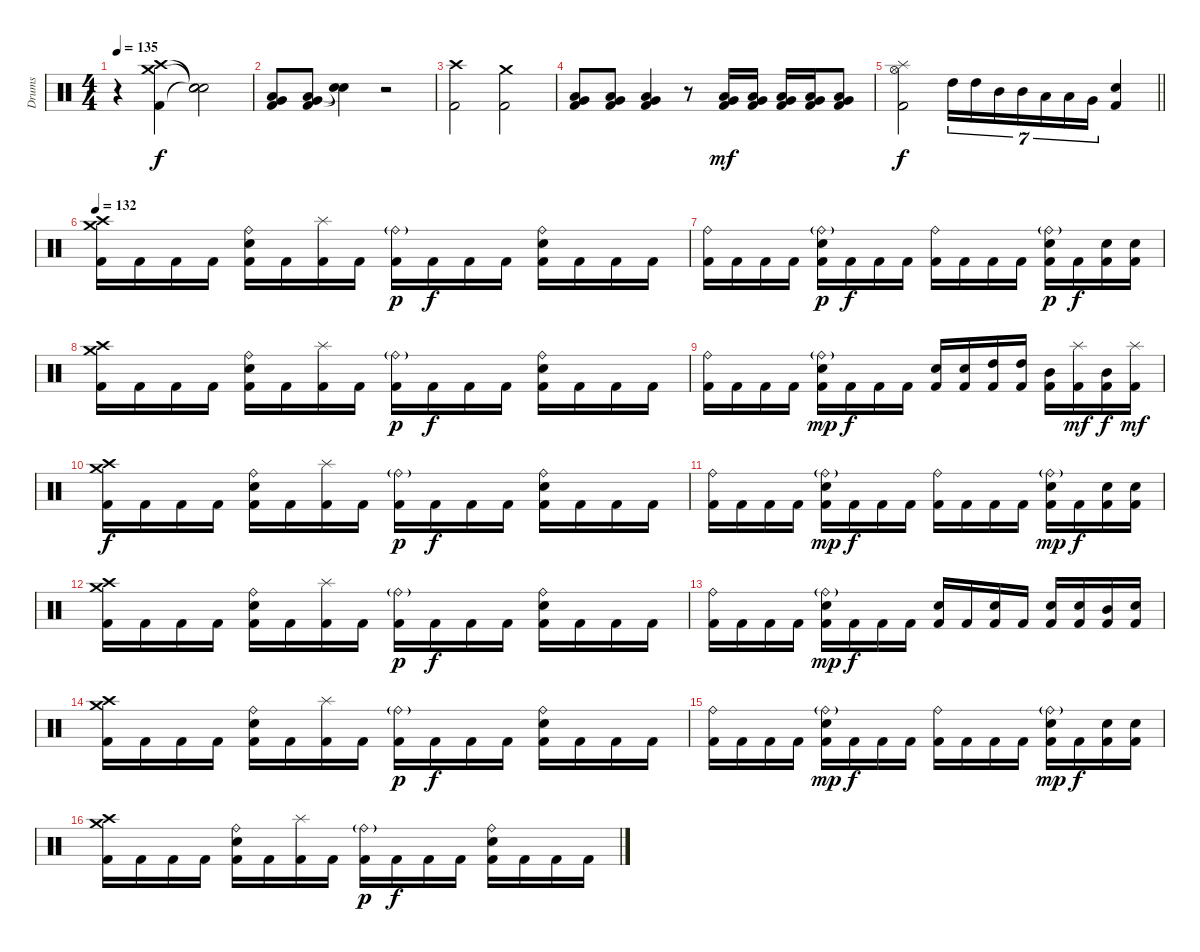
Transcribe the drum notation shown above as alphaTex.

\track ("Drums" "Drums") {instrument percussion}
\staff {score}
\articulation defaults
\ts (4 4)
\tempo 135
\clef neutral
\ks c
r.4{dy f} ("Crash high (hit)" "Crash medium (hit)" "Kick (hit) 2").4 ("Snare (hit)"{t} "Snare (hit)"{t} "Snare (hit)"{t}).2 |
("Low Tom (hit)" "Very Low Tom (hit)" "Kick (hit) 2").8 ("Low Tom (hit)" "Very Low Tom (hit)" "Kick (hit) 2").8 ("Snare (hit)"{t} "Snare (hit)"{t}).4 r.2 |
("Crash high (hit)" "Kick (hit) 2").2 ("Crash medium (hit)" "Kick (hit) 2").2 |
("Low Tom (hit)" "Very Low Tom (hit)" "Kick (hit) 2").8 ("Low Tom (hit)" "Very Low Tom (hit)" "Kick (hit) 2").8 ("Low Tom (hit)" "Very Low Tom (hit)" "Kick (hit) 2").4 r.8 ("Low Tom (hit)" "Very Low Tom (hit)" "Kick (hit) 2").16{dy mf} ("Low Tom (hit)" "Very Low Tom (hit)" "Kick (hit) 2").16 ("Low Tom (hit)" "Very Low Tom (hit)" "Kick (hit) 2").16 ("Low Tom (hit)" "Very Low Tom (hit)" "Kick (hit) 2").16 ("Low Tom (hit)" "Very Low Tom (hit)" "Kick (hit) 2").8 |
\barLineRight lightlight
("Splash (hit)" "Hi-Hat (open)" "Kick (hit) 2").2{dy f} "High Tom (hit)".16{tu (7 4)} "High Tom (hit)".16{tu (7 4)} "Mid Tom (hit)".16{tu (7 4)} "Mid Tom (hit)".16{tu (7 4)} "Low Tom (hit)".16{tu (7 4)} "Low Tom (hit)".16{tu (7 4)} "Very Low Tom (hit)".16{tu (7 4)} ("Electric Snare (hit)" "Kick (hit) 2").4 |
\tempo 132
("Crash high (hit)" "Crash medium (hit)" "Kick (hit) 2").16 "Kick (hit) 2".16 "Kick (hit) 2".16 "Kick (hit) 2".16 ("Ride (bell)" "Electric Snare (hit)" "Kick (hit) 2").16 "Kick (hit) 2".16 ("Splash (hit)" "Kick (hit) 2").16 "Kick (hit) 2".16 ("Ride (bell)"{g} "Kick (hit) 2").16{dy p} "Kick (hit) 2".16{dy f} "Kick (hit) 2".16 "Kick (hit) 2".16 ("Ride (bell)" "Electric Snare (hit)" "Kick (hit) 2").16 "Kick (hit) 2".16 "Kick (hit) 2".16 "Kick (hit) 2".16 |
("Ride (bell)" "Kick (hit) 2").16 "Kick (hit) 2".16 "Kick (hit) 2".16 "Kick (hit) 2".16 ("Ride (bell)"{g} "Electric Snare (hit)" "Kick (hit) 2").16{dy p} "Kick (hit) 2".16{dy f} "Kick (hit) 2".16 "Kick (hit) 2".16 ("Ride (bell)" "Kick (hit) 2").16 "Kick (hit) 2".16 "Kick (hit) 2".16 "Kick (hit) 2".16 ("Ride (bell)"{g} "Electric Snare (hit)" "Kick (hit) 2").16{dy p} "Kick (hit) 2".16{dy f} ("Electric Snare (hit)" "Kick (hit) 2").16 ("Electric Snare (hit)" "Kick (hit) 2").16 |
("Crash high (hit)" "Crash medium (hit)" "Kick (hit) 2").16 "Kick (hit) 2".16 "Kick (hit) 2".16 "Kick (hit) 2".16 ("Ride (bell)" "Electric Snare (hit)" "Kick (hit) 2").16 "Kick (hit) 2".16 ("Splash (hit)" "Kick (hit) 2").16 "Kick (hit) 2".16 ("Ride (bell)"{g} "Kick (hit) 2").16{dy p} "Kick (hit) 2".16{dy f} "Kick (hit) 2".16 "Kick (hit) 2".16 ("Ride (bell)" "Electric Snare (hit)" "Kick (hit) 2").16 "Kick (hit) 2".16 "Kick (hit) 2".16 "Kick (hit) 2".16 |
("Ride (bell)" "Kick (hit) 2").16 "Kick (hit) 2".16 "Kick (hit) 2".16 "Kick (hit) 2".16 ("Ride (bell)"{g} "Electric Snare (hit)" "Kick (hit) 2").16{dy mp} "Kick (hit) 2".16{dy f} "Kick (hit) 2".16 "Kick (hit) 2".16 ("Electric Snare (hit)" "Kick (hit) 2").16 ("Electric Snare (hit)" "Kick (hit) 2").16 ("High Tom (hit)" "Kick (hit) 2").16 ("High Tom (hit)" "Kick (hit) 2").16 ("Mid Tom (hit)" "Kick (hit) 2").16 ("Splash (hit)" "Kick (hit) 2").16{dy mf} ("Mid Tom (hit)" "Kick (hit) 2").16{dy f} ("Splash (hit)" "Kick (hit) 2").16{dy mf} |
("Crash high (hit)" "Crash medium (hit)" "Kick (hit) 2").16{dy f} "Kick (hit) 2".16 "Kick (hit) 2".16 "Kick (hit) 2".16 ("Ride (bell)" "Electric Snare (hit)" "Kick (hit) 2").16 "Kick (hit) 2".16 ("Splash (hit)" "Kick (hit) 2").16 "Kick (hit) 2".16 ("Ride (bell)"{g} "Kick (hit) 2").16{dy p} "Kick (hit) 2".16{dy f} "Kick (hit) 2".16 "Kick (hit) 2".16 ("Ride (bell)" "Electric Snare (hit)" "Kick (hit) 2").16 "Kick (hit) 2".16 "Kick (hit) 2".16 "Kick (hit) 2".16 |
("Ride (bell)" "Kick (hit) 2").16 "Kick (hit) 2".16 "Kick (hit) 2".16 "Kick (hit) 2".16 ("Ride (bell)"{g} "Electric Snare (hit)" "Kick (hit) 2").16{dy mp} "Kick (hit) 2".16{dy f} "Kick (hit) 2".16 "Kick (hit) 2".16 ("Ride (bell)" "Kick (hit) 2").16 "Kick (hit) 2".16 "Kick (hit) 2".16 "Kick (hit) 2".16 ("Ride (bell)"{g} "Electric Snare (hit)" "Kick (hit) 2").16{dy mp} "Kick (hit) 2".16{dy f} ("Electric Snare (hit)" "Kick (hit) 2").16 ("Electric Snare (hit)" "Kick (hit) 2").16 |
("Crash high (hit)" "Crash medium (hit)" "Kick (hit) 2").16 "Kick (hit) 2".16 "Kick (hit) 2".16 "Kick (hit) 2".16 ("Ride (bell)" "Electric Snare (hit)" "Kick (hit) 2").16 "Kick (hit) 2".16 ("Splash (hit)" "Kick (hit) 2").16 "Kick (hit) 2".16 ("Ride (bell)"{g} "Kick (hit) 2").16{dy p} "Kick (hit) 2".16{dy f} "Kick (hit) 2".16 "Kick (hit) 2".16 ("Ride (bell)" "Electric Snare (hit)" "Kick (hit) 2").16 "Kick (hit) 2".16 "Kick (hit) 2".16 "Kick (hit) 2".16 |
("Ride (bell)" "Kick (hit) 2").16 "Kick (hit) 2".16 "Kick (hit) 2".16 "Kick (hit) 2".16 ("Ride (bell)"{g} "Electric Snare (hit)" "Kick (hit) 2").16{dy mp} "Kick (hit) 2".16{dy f} "Kick (hit) 2".16 "Kick (hit) 2".16 ("Electric Snare (hit)" "Kick (hit) 2").16 "Kick (hit) 2".16 ("Electric Snare (hit)" "Kick (hit) 2").16 "Kick (hit) 2".16 ("Electric Snare (hit)" "Kick (hit) 2").16 ("Electric Snare (hit)" "Kick (hit) 2").16 ("Mid Tom (hit)" "Kick (hit) 2").16 ("Electric Snare (hit)" "Kick (hit) 2").16 |
("Crash high (hit)" "Crash medium (hit)" "Kick (hit) 2").16 "Kick (hit) 2".16 "Kick (hit) 2".16 "Kick (hit) 2".16 ("Ride (bell)" "Electric Snare (hit)" "Kick (hit) 2").16 "Kick (hit) 2".16 ("Splash (hit)" "Kick (hit) 2").16 "Kick (hit) 2".16 ("Ride (bell)"{g} "Kick (hit) 2").16{dy p} "Kick (hit) 2".16{dy f} "Kick (hit) 2".16 "Kick (hit) 2".16 ("Ride (bell)" "Electric Snare (hit)" "Kick (hit) 2").16 "Kick (hit) 2".16 "Kick (hit) 2".16 "Kick (hit) 2".16 |
("Ride (bell)" "Kick (hit) 2").16 "Kick (hit) 2".16 "Kick (hit) 2".16 "Kick (hit) 2".16 ("Ride (bell)"{g} "Electric Snare (hit)" "Kick (hit) 2").16{dy mp} "Kick (hit) 2".16{dy f} "Kick (hit) 2".16 "Kick (hit) 2".16 ("Ride (bell)" "Kick (hit) 2").16 "Kick (hit) 2".16 "Kick (hit) 2".16 "Kick (hit) 2".16 ("Ride (bell)"{g} "Electric Snare (hit)" "Kick (hit) 2").16{dy mp} "Kick (hit) 2".16{dy f} ("Electric Snare (hit)" "Kick (hit) 2").16 ("Electric Snare (hit)" "Kick (hit) 2").16 |
("Crash high (hit)" "Crash medium (hit)" "Kick (hit) 2").16 "Kick (hit) 2".16 "Kick (hit) 2".16 "Kick (hit) 2".16 ("Ride (bell)" "Electric Snare (hit)" "Kick (hit) 2").16 "Kick (hit) 2".16 ("Splash (hit)" "Kick (hit) 2").16 "Kick (hit) 2".16 ("Ride (bell)"{g} "Kick (hit) 2").16{dy p} "Kick (hit) 2".16{dy f} "Kick (hit) 2".16 "Kick (hit) 2".16 ("Ride (bell)" "Electric Snare (hit)" "Kick (hit) 2").16 "Kick (hit) 2".16 "Kick (hit) 2".16 "Kick (hit) 2".16
